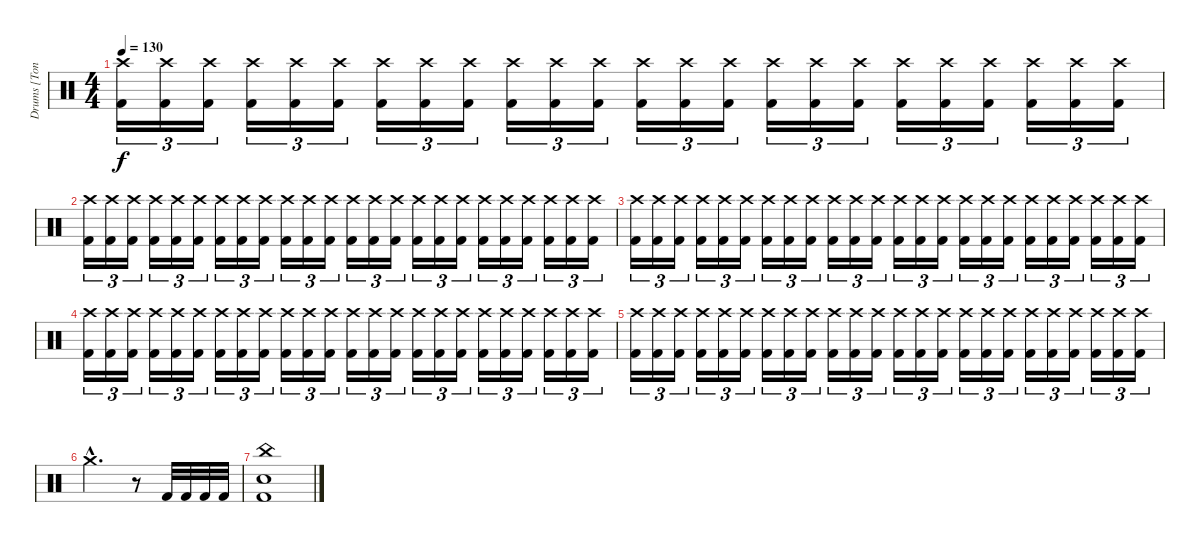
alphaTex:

\track ("Drums [Tony Laureano]" "Drums [Ton") {instrument percussion}
\staff {score}
\articulation defaults
\ts (4 4)
\tempo 130
\clef neutral
\ks c
("Crash high (hit)" "Kick (hit) 2").16{tu (3 2) dy f} ("Crash high (hit)" "Kick (hit) 2").16{tu (3 2)} ("Crash high (hit)" "Kick (hit) 2").16{tu (3 2)} ("Crash high (hit)" "Kick (hit) 2").16{tu (3 2)} ("Crash high (hit)" "Kick (hit) 2").16{tu (3 2)} ("Crash high (hit)" "Kick (hit) 2").16{tu (3 2)} ("Crash high (hit)" "Kick (hit) 2").16{tu (3 2)} ("Crash high (hit)" "Kick (hit) 2").16{tu (3 2)} ("Crash high (hit)" "Kick (hit) 2").16{tu (3 2)} ("Crash high (hit)" "Kick (hit) 2").16{tu (3 2)} ("Crash high (hit)" "Kick (hit) 2").16{tu (3 2)} ("Crash high (hit)" "Kick (hit) 2").16{tu (3 2)} ("Crash high (hit)" "Kick (hit) 2").16{tu (3 2)} ("Crash high (hit)" "Kick (hit) 2").16{tu (3 2)} ("Crash high (hit)" "Kick (hit) 2").16{tu (3 2)} ("Crash high (hit)" "Kick (hit) 2").16{tu (3 2)} ("Crash high (hit)" "Kick (hit) 2").16{tu (3 2)} ("Crash high (hit)" "Kick (hit) 2").16{tu (3 2)} ("Crash high (hit)" "Kick (hit) 2").16{tu (3 2)} ("Crash high (hit)" "Kick (hit) 2").16{tu (3 2)} ("Crash high (hit)" "Kick (hit) 2").16{tu (3 2)} ("Crash high (hit)" "Kick (hit) 2").16{tu (3 2)} ("Crash high (hit)" "Kick (hit) 2").16{tu (3 2)} ("Crash high (hit)" "Kick (hit) 2").16{tu (3 2)} |
("Crash high (hit)" "Kick (hit) 2").16{tu (3 2)} ("Crash high (hit)" "Kick (hit) 2").16{tu (3 2)} ("Crash high (hit)" "Kick (hit) 2").16{tu (3 2)} ("Crash high (hit)" "Kick (hit) 2").16{tu (3 2)} ("Crash high (hit)" "Kick (hit) 2").16{tu (3 2)} ("Crash high (hit)" "Kick (hit) 2").16{tu (3 2)} ("Crash high (hit)" "Kick (hit) 2").16{tu (3 2)} ("Crash high (hit)" "Kick (hit) 2").16{tu (3 2)} ("Crash high (hit)" "Kick (hit) 2").16{tu (3 2)} ("Crash high (hit)" "Kick (hit) 2").16{tu (3 2)} ("Crash high (hit)" "Kick (hit) 2").16{tu (3 2)} ("Crash high (hit)" "Kick (hit) 2").16{tu (3 2)} ("Crash high (hit)" "Kick (hit) 2").16{tu (3 2)} ("Crash high (hit)" "Kick (hit) 2").16{tu (3 2)} ("Crash high (hit)" "Kick (hit) 2").16{tu (3 2)} ("Crash high (hit)" "Kick (hit) 2").16{tu (3 2)} ("Crash high (hit)" "Kick (hit) 2").16{tu (3 2)} ("Crash high (hit)" "Kick (hit) 2").16{tu (3 2)} ("Crash high (hit)" "Kick (hit) 2").16{tu (3 2)} ("Crash high (hit)" "Kick (hit) 2").16{tu (3 2)} ("Crash high (hit)" "Kick (hit) 2").16{tu (3 2)} ("Crash high (hit)" "Kick (hit) 2").16{tu (3 2)} ("Crash high (hit)" "Kick (hit) 2").16{tu (3 2)} ("Crash high (hit)" "Kick (hit) 2").16{tu (3 2)} |
("Crash high (hit)" "Kick (hit) 2").16{tu (3 2)} ("Crash high (hit)" "Kick (hit) 2").16{tu (3 2)} ("Crash high (hit)" "Kick (hit) 2").16{tu (3 2)} ("Crash high (hit)" "Kick (hit) 2").16{tu (3 2)} ("Crash high (hit)" "Kick (hit) 2").16{tu (3 2)} ("Crash high (hit)" "Kick (hit) 2").16{tu (3 2)} ("Crash high (hit)" "Kick (hit) 2").16{tu (3 2)} ("Crash high (hit)" "Kick (hit) 2").16{tu (3 2)} ("Crash high (hit)" "Kick (hit) 2").16{tu (3 2)} ("Crash high (hit)" "Kick (hit) 2").16{tu (3 2)} ("Crash high (hit)" "Kick (hit) 2").16{tu (3 2)} ("Crash high (hit)" "Kick (hit) 2").16{tu (3 2)} ("Crash high (hit)" "Kick (hit) 2").16{tu (3 2)} ("Crash high (hit)" "Kick (hit) 2").16{tu (3 2)} ("Crash high (hit)" "Kick (hit) 2").16{tu (3 2)} ("Crash high (hit)" "Kick (hit) 2").16{tu (3 2)} ("Crash high (hit)" "Kick (hit) 2").16{tu (3 2)} ("Crash high (hit)" "Kick (hit) 2").16{tu (3 2)} ("Crash high (hit)" "Kick (hit) 2").16{tu (3 2)} ("Crash high (hit)" "Kick (hit) 2").16{tu (3 2)} ("Crash high (hit)" "Kick (hit) 2").16{tu (3 2)} ("Crash high (hit)" "Kick (hit) 2").16{tu (3 2)} ("Crash high (hit)" "Kick (hit) 2").16{tu (3 2)} ("Crash high (hit)" "Kick (hit) 2").16{tu (3 2)} |
("Crash high (hit)" "Kick (hit) 2").16{tu (3 2)} ("Crash high (hit)" "Kick (hit) 2").16{tu (3 2)} ("Crash high (hit)" "Kick (hit) 2").16{tu (3 2)} ("Crash high (hit)" "Kick (hit) 2").16{tu (3 2)} ("Crash high (hit)" "Kick (hit) 2").16{tu (3 2)} ("Crash high (hit)" "Kick (hit) 2").16{tu (3 2)} ("Crash high (hit)" "Kick (hit) 2").16{tu (3 2)} ("Crash high (hit)" "Kick (hit) 2").16{tu (3 2)} ("Crash high (hit)" "Kick (hit) 2").16{tu (3 2)} ("Crash high (hit)" "Kick (hit) 2").16{tu (3 2)} ("Crash high (hit)" "Kick (hit) 2").16{tu (3 2)} ("Crash high (hit)" "Kick (hit) 2").16{tu (3 2)} ("Crash high (hit)" "Kick (hit) 2").16{tu (3 2)} ("Crash high (hit)" "Kick (hit) 2").16{tu (3 2)} ("Crash high (hit)" "Kick (hit) 2").16{tu (3 2)} ("Crash high (hit)" "Kick (hit) 2").16{tu (3 2)} ("Crash high (hit)" "Kick (hit) 2").16{tu (3 2)} ("Crash high (hit)" "Kick (hit) 2").16{tu (3 2)} ("Crash high (hit)" "Kick (hit) 2").16{tu (3 2)} ("Crash high (hit)" "Kick (hit) 2").16{tu (3 2)} ("Crash high (hit)" "Kick (hit) 2").16{tu (3 2)} ("Crash high (hit)" "Kick (hit) 2").16{tu (3 2)} ("Crash high (hit)" "Kick (hit) 2").16{tu (3 2)} ("Crash high (hit)" "Kick (hit) 2").16{tu (3 2)} |
("Crash high (hit)" "Kick (hit) 2").16{tu (3 2)} ("Crash high (hit)" "Kick (hit) 2").16{tu (3 2)} ("Crash high (hit)" "Kick (hit) 2").16{tu (3 2)} ("Crash high (hit)" "Kick (hit) 2").16{tu (3 2)} ("Crash high (hit)" "Kick (hit) 2").16{tu (3 2)} ("Crash high (hit)" "Kick (hit) 2").16{tu (3 2)} ("Crash high (hit)" "Kick (hit) 2").16{tu (3 2)} ("Crash high (hit)" "Kick (hit) 2").16{tu (3 2)} ("Crash high (hit)" "Kick (hit) 2").16{tu (3 2)} ("Crash high (hit)" "Kick (hit) 2").16{tu (3 2)} ("Crash high (hit)" "Kick (hit) 2").16{tu (3 2)} ("Crash high (hit)" "Kick (hit) 2").16{tu (3 2)} ("Crash high (hit)" "Kick (hit) 2").16{tu (3 2)} ("Crash high (hit)" "Kick (hit) 2").16{tu (3 2)} ("Crash high (hit)" "Kick (hit) 2").16{tu (3 2)} ("Crash high (hit)" "Kick (hit) 2").16{tu (3 2)} ("Crash high (hit)" "Kick (hit) 2").16{tu (3 2)} ("Crash high (hit)" "Kick (hit) 2").16{tu (3 2)} ("Crash high (hit)" "Kick (hit) 2").16{tu (3 2)} ("Crash high (hit)" "Kick (hit) 2").16{tu (3 2)} ("Crash high (hit)" "Kick (hit) 2").16{tu (3 2)} ("Crash high (hit)" "Kick (hit) 2").16{tu (3 2)} ("Crash high (hit)" "Kick (hit) 2").16{tu (3 2)} ("Crash high (hit)" "Kick (hit) 2").16{tu (3 2)} |
"Crash medium (hit)"{hac}.2{d} r.8 "Kick (hit) 2".32 "Kick (hit) 2".32 "Kick (hit) 2".32 "Kick (hit) 2".32 |
("China (hit)" "Electric Snare (hit)" "Kick (hit) 2").1
